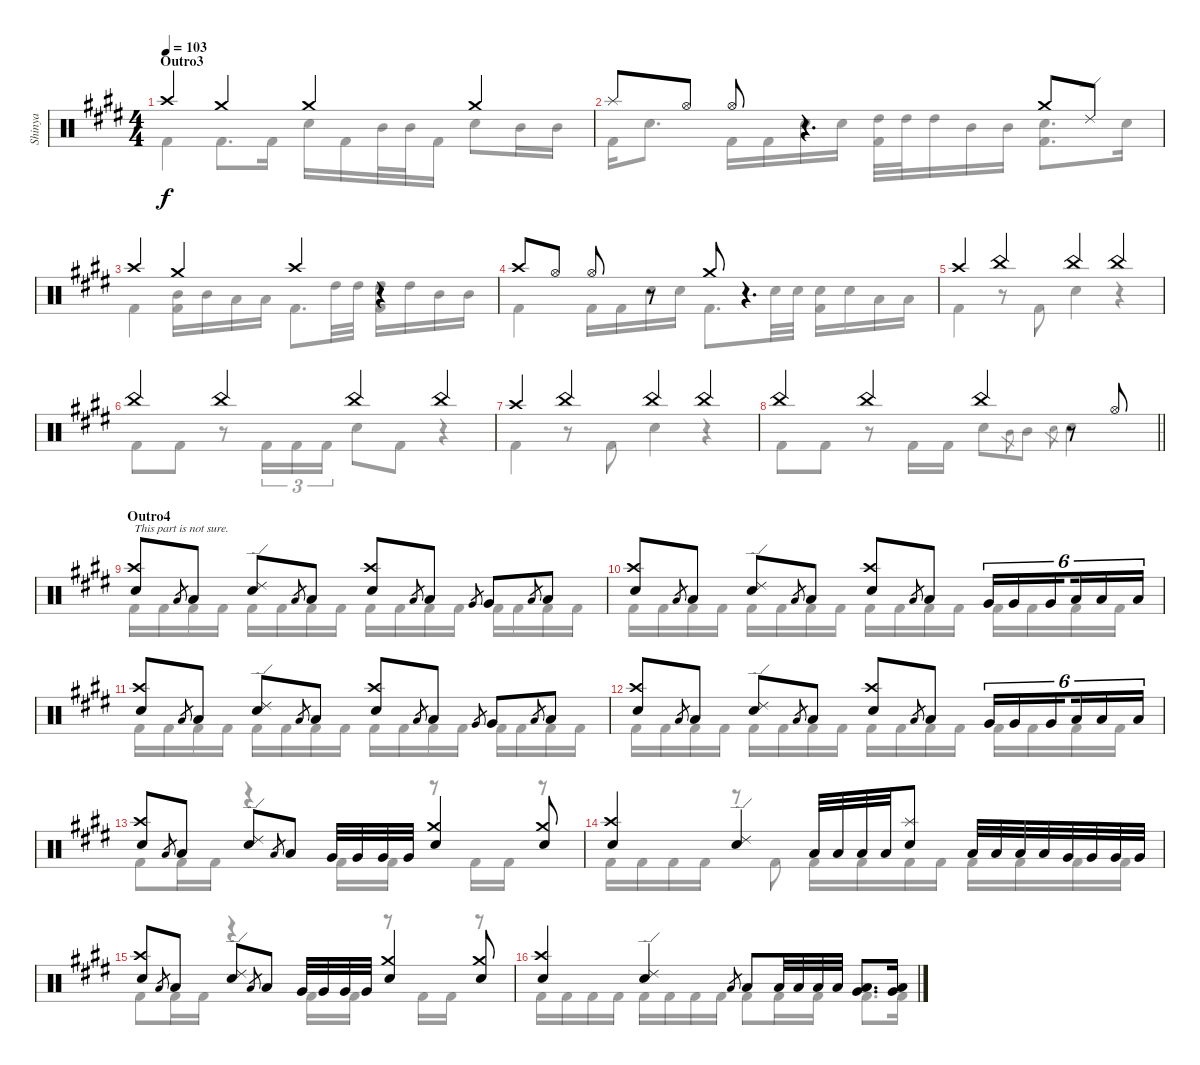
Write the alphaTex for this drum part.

\track ("Shinya" "Shinya") {instrument percussion}
\staff {score}
\articulation defaults
\voice
\ts (4 4)
\section ("" "Outro3")
\tempo 103
\clef neutral
\ks c#minor "Crash high (hit)".4{dy f} "Crash medium (hit)".4 "Crash medium (hit)".4 "Crash medium (hit)".4
|
"Splash (hit)".8 "Hi-Hat (open)".8 "Hi-Hat (open)".8 r.4{d} "Crash medium (hit)".8 "Ride (edge) 2".8 |
"Crash high (hit)".4 "Crash medium (hit)".4 "Crash high (hit)".4 r.4 |
"Crash high (hit)".8 "Hi-Hat (open)".8 "Hi-Hat (open)".8 r.8 "Crash medium (hit)".8 r.4{d} |
"Crash high (hit)".4 "China (hit)".4 "China (hit)".4 "China (hit)".4 |
"China (hit)".4 "China (hit)".4 "China (hit)".4 "China (hit)".4 |
"Crash high (hit)".4 "China (hit)".4 "China (hit)".4 "China (hit)".4 |
\barLineRight lightlight "China (hit)".4 "China (hit)".4 "China (hit)".4
r.8 "Hi-Hat (open)".8 |
\section ("" "Outro4")
("Crash high (hit)" "Snare (hit) 2").8{txt "This part is not sure."} "Low Tom (hit)".8{gr} "Low Tom (hit)".8 ("Ride (edge) 2" "Snare (hit) 2").8 "Low Tom (hit)".8{gr} "Low Tom (hit)".8 ("Crash high (hit)" "Snare (hit) 2").8 "Low Tom (hit)".8{gr} "Low Tom (hit)".8 "Very Low Tom (hit)".8{gr} "Very Low Tom (hit)".8 "Low Floor Tom (hit)".8{gr} "Low Floor Tom (hit)".8 |
("Crash high (hit)" "Snare (hit) 2").8 "Low Tom (hit)".8{gr} "Low Tom (hit)".8 ("Ride (edge) 2" "Snare (hit) 2").8 "Low Tom (hit)".8{gr} "Low Tom (hit)".8 ("Crash high (hit)" "Snare (hit) 2").8 "Low Tom (hit)".8{gr} "Low Tom (hit)".8 "Very Low Tom (hit)".16{tu (6 4)} "Very Low Tom (hit)".16{tu (6 4)} "Very Low Tom (hit)".16{tu (6 4) beam splitsecondary} "Low Floor Tom (hit)".16{tu (6 4)} "Low Floor Tom (hit)".16{tu (6 4)} "Low Floor Tom (hit)".16{tu (6 4)} |
("Crash high (hit)" "Snare (hit) 2").8 "Low Tom (hit)".8{gr} "Low Tom (hit)".8 ("Ride (edge) 2" "Snare (hit) 2").8 "Low Tom (hit)".8{gr} "Low Tom (hit)".8 ("Crash high (hit)" "Snare (hit) 2").8 "Low Tom (hit)".8{gr} "Low Tom (hit)".8 "Very Low Tom (hit)".8{gr} "Very Low Tom (hit)".8 "Low Floor Tom (hit)".8{gr} "Low Floor Tom (hit)".8 |
("Crash high (hit)" "Snare (hit) 2").8 "Low Tom (hit)".8{gr} "Low Tom (hit)".8 ("Ride (edge) 2" "Snare (hit) 2").8 "Low Tom (hit)".8{gr} "Low Tom (hit)".8 ("Crash high (hit)" "Snare (hit) 2").8 "Low Tom (hit)".8{gr} "Low Tom (hit)".8 "Very Low Tom (hit)".16{tu (6 4)} "Very Low Tom (hit)".16{tu (6 4)} "Very Low Tom (hit)".16{tu (6 4) beam splitsecondary} "Low Floor Tom (hit)".16{tu (6 4)} "Low Floor Tom (hit)".16{tu (6 4)} "Low Floor Tom (hit)".16{tu (6 4)} |
("Crash high (hit)" "Snare (hit) 2").8 "Low Tom (hit)".8{gr} "Low Tom (hit)".8 ("Ride (edge) 2" "Snare (hit) 2").8 "Low Tom (hit)".8{gr} "Low Tom (hit)".8 "Very Low Tom (hit)".32 "Very Low Tom (hit)".32 "Very Low Tom (hit)".32 "Very Low Tom (hit)".32 ("Crash medium (hit)" "Snare (hit) 2").4 ("Crash medium (hit)" "Snare (hit) 2").8 |
("Crash high (hit)" "Snare (hit) 2").4 ("Ride (edge) 2" "Snare (hit) 2").4 "Low Tom (hit)".32 "Low Tom (hit)".32 "Low Tom (hit)".32 "Low Tom (hit)".32 ("Splash (hit)" "Snare (hit) 2").8 "Low Tom (hit)".32 "Low Tom (hit)".32 "Low Tom (hit)".32 "Low Tom (hit)".32 "Very Low Tom (hit)".32 "Very Low Tom (hit)".32 "Very Low Tom (hit)".32 "Very Low Tom (hit)".32 |
("Crash high (hit)" "Snare (hit) 2").8 "Low Tom (hit)".8{gr} "Low Tom (hit)".8 ("Ride (edge) 2" "Snare (hit) 2").8 "Low Tom (hit)".8{gr} "Low Tom (hit)".8 "Very Low Tom (hit)".32 "Very Low Tom (hit)".32 "Very Low Tom (hit)".32 "Very Low Tom (hit)".32 ("Crash medium (hit)" "Snare (hit) 2").4 ("Crash medium (hit)" "Snare (hit) 2").8 |
("Crash high (hit)" "Snare (hit) 2").4 ("Ride (edge) 2" "Snare (hit) 2").4 "Low Tom (hit)".8{gr} "Low Tom (hit)".8 "Low Tom (hit)".32 "Low Tom (hit)".32 "Low Tom (hit)".32 "Low Tom (hit)".32 ("Low Floor Tom (hit)" "Very Low Tom (hit)").8{d} ("Low Floor Tom (hit)" "Very Low Tom (hit)").16
\voice
\clef neutral
\ottava regular
\simile none
\ks c#minor "Kick (hit) 2".4{dy f} "Kick (hit) 2".8{d} "Kick (hit) 2".16 "Snare (hit) 2".16 "Kick (hit) 2".16 "Mid Tom (hit)".32 "Mid Tom (hit)".32 "Kick (hit) 2".16 "Snare (hit) 2".8 "Mid Tom (hit)".16 "Mid Tom (hit)".16
|
"Kick (hit) 2".16 "Snare (hit) 2".8{d} "Kick (hit) 2".16 "Kick (hit) 2".16 "Snare (hit) 2".16 "Snare (hit) 2".16 ("High Tom (hit)" "Kick (hit) 2").32 "High Tom (hit)".32 "High Tom (hit)".16 "Mid Tom (hit)".16 "Mid Tom (hit)".16 ("Snare (hit) 2" "Kick (hit) 2").8{d} "Snare (hit) 2".16 |
"Kick (hit) 2".4 ("Mid Tom (hit)" "Kick (hit) 2").16 "Mid Tom (hit)".16 "Low Tom (hit)".16 "Low Tom (hit)".16 "Kick (hit) 2".8{d} "High Tom (hit)".32 "High Tom (hit)".32 ("High Tom (hit)" "Kick (hit) 2").16 "High Tom (hit)".16 "Mid Tom (hit)".16 "Mid Tom (hit)".16 |
"Kick (hit) 2".4 "Kick (hit) 2".16 "Kick (hit) 2".16 "Snare (hit) 2".16 "Snare (hit) 2".16 "Kick (hit) 2".8{d} "Snare (hit) 2".32 "Snare (hit) 2".32 ("Snare (hit) 2" "Kick (hit) 2").16 "Snare (hit) 2".16 "Low Tom (hit)".16 "Low Tom (hit)".16 |
"Kick (hit) 2".4 r.8 "Kick (hit) 2".8 "Snare (hit) 2".4 r.4 |
"Kick (hit) 2".8 "Kick (hit) 2".8 r.8 "Kick (hit) 2".16{tu (3 2)} "Kick (hit) 2".16{tu (3 2)} "Kick (hit) 2".16{tu (3 2)} "Snare (hit) 2".8 "Kick (hit) 2".8 r.4 |
"Kick (hit) 2".4 r.8 "Kick (hit) 2".8 "Snare (hit) 2".4 r.4 |
\barLineRight lightlight "Kick (hit) 2".8 "Kick (hit) 2".8
r.8 "Kick (hit) 2".16 "Kick (hit) 2".16 "Snare (hit) 2".8 "Mid Tom (hit)".8{gr} "Mid Tom (hit)".8 "Snare (hit) 2".8{gr} "Snare (hit) 2".4 |
"Kick (hit) 2".16 "Kick (hit) 2".16 "Kick (hit) 2".16 "Kick (hit) 2".16 "Kick (hit) 2".16 "Kick (hit) 2".16 "Kick (hit) 2".16 "Kick (hit) 2".16 "Kick (hit) 2".16 "Kick (hit) 2".16 "Kick (hit) 2".16 "Kick (hit) 2".16 "Kick (hit) 2".16 "Kick (hit) 2".16 "Kick (hit) 2".16 "Kick (hit) 2".16 |
"Kick (hit) 2".16 "Kick (hit) 2".16 "Kick (hit) 2".16 "Kick (hit) 2".16 "Kick (hit) 2".16 "Kick (hit) 2".16 "Kick (hit) 2".16 "Kick (hit) 2".16 "Kick (hit) 2".16 "Kick (hit) 2".16 "Kick (hit) 2".16 "Kick (hit) 2".16 "Kick (hit) 2".16 "Kick (hit) 2".16 "Kick (hit) 2".16 "Kick (hit) 2".16 |
"Kick (hit) 2".16 "Kick (hit) 2".16 "Kick (hit) 2".16 "Kick (hit) 2".16 "Kick (hit) 2".16 "Kick (hit) 2".16 "Kick (hit) 2".16 "Kick (hit) 2".16 "Kick (hit) 2".16 "Kick (hit) 2".16 "Kick (hit) 2".16 "Kick (hit) 2".16 "Kick (hit) 2".16 "Kick (hit) 2".16 "Kick (hit) 2".16 "Kick (hit) 2".16 |
"Kick (hit) 2".16 "Kick (hit) 2".16 "Kick (hit) 2".16 "Kick (hit) 2".16 "Kick (hit) 2".16 "Kick (hit) 2".16 "Kick (hit) 2".16 "Kick (hit) 2".16 "Kick (hit) 2".16 "Kick (hit) 2".16 "Kick (hit) 2".16 "Kick (hit) 2".16 "Kick (hit) 2".16 "Kick (hit) 2".16 "Kick (hit) 2".16 "Kick (hit) 2".16 |
"Kick (hit) 2".8 "Kick (hit) 2".16 "Kick (hit) 2".16 r.4 "Kick (hit) 2".16 "Kick (hit) 2".16 r.8 "Kick (hit) 2".16 "Kick (hit) 2".16 r.8 |
"Kick (hit) 2".16 "Kick (hit) 2".16 "Kick (hit) 2".16 "Kick (hit) 2".16 r.8 "Kick (hit) 2".8 "Kick (hit) 2".16 "Kick (hit) 2".16 "Kick (hit) 2".16 "Kick (hit) 2".16 "Kick (hit) 2".16 "Kick (hit) 2".16 "Kick (hit) 2".16 "Kick (hit) 2".16 |
"Kick (hit) 2".8 "Kick (hit) 2".16 "Kick (hit) 2".16 r.4 "Kick (hit) 2".16 "Kick (hit) 2".16 r.8 "Kick (hit) 2".16 "Kick (hit) 2".16 r.8 |
"Kick (hit) 2".16 "Kick (hit) 2".16 "Kick (hit) 2".16 "Kick (hit) 2".16 "Kick (hit) 2".16 "Kick (hit) 2".16 "Kick (hit) 2".16 "Kick (hit) 2".16 "Kick (hit) 2".8 "Kick (hit) 2".16 "Kick (hit) 2".16 "Kick (hit) 2".8{d} "Kick (hit) 2".16
